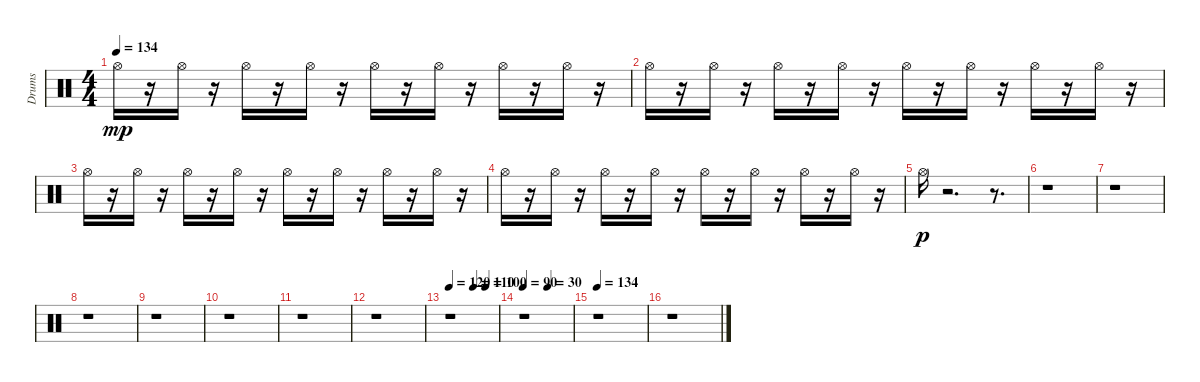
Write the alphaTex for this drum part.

\track ("Drums" "Drums") {instrument percussion}
\staff {score}
\articulation defaults
\ts (4 4)
\tempo 134
\clef neutral
\ks c "Hi-Hat (open)".16{dy mp}
r.16 "Hi-Hat (open)".16 r.16 "Hi-Hat (open)".16 r.16 "Hi-Hat (open)".16 r.16 "Hi-Hat (open)".16 r.16 "Hi-Hat (open)".16 r.16 "Hi-Hat (open)".16 r.16 "Hi-Hat (open)".16 r.16 |
"Hi-Hat (open)".16 r.16 "Hi-Hat (open)".16 r.16 "Hi-Hat (open)".16 r.16 "Hi-Hat (open)".16 r.16 "Hi-Hat (open)".16 r.16 "Hi-Hat (open)".16 r.16 "Hi-Hat (open)".16 r.16 "Hi-Hat (open)".16 r.16 |
"Hi-Hat (open)".16 r.16 "Hi-Hat (open)".16 r.16 "Hi-Hat (open)".16 r.16 "Hi-Hat (open)".16 r.16 "Hi-Hat (open)".16 r.16 "Hi-Hat (open)".16 r.16 "Hi-Hat (open)".16 r.16 "Hi-Hat (open)".16 r.16 |
"Hi-Hat (open)".16 r.16 "Hi-Hat (open)".16 r.16 "Hi-Hat (open)".16 r.16 "Hi-Hat (open)".16 r.16 "Hi-Hat (open)".16 r.16 "Hi-Hat (open)".16 r.16 "Hi-Hat (open)".16 r.16 "Hi-Hat (open)".16 r.16 |
"Hi-Hat (open)".16{dy p} r.2{d} r.8{d} |
r.1 |
r.1 |
r.1 |
r.1 |
r.1 |
r.1 |
r.1 |
\tempo 120
\tempo (110 0.5)
\tempo (100 0.75)
r.1 |
\tempo 90
\tempo (30 0.5)
r.1 |
\tempo 134
r.1 |
r.1
